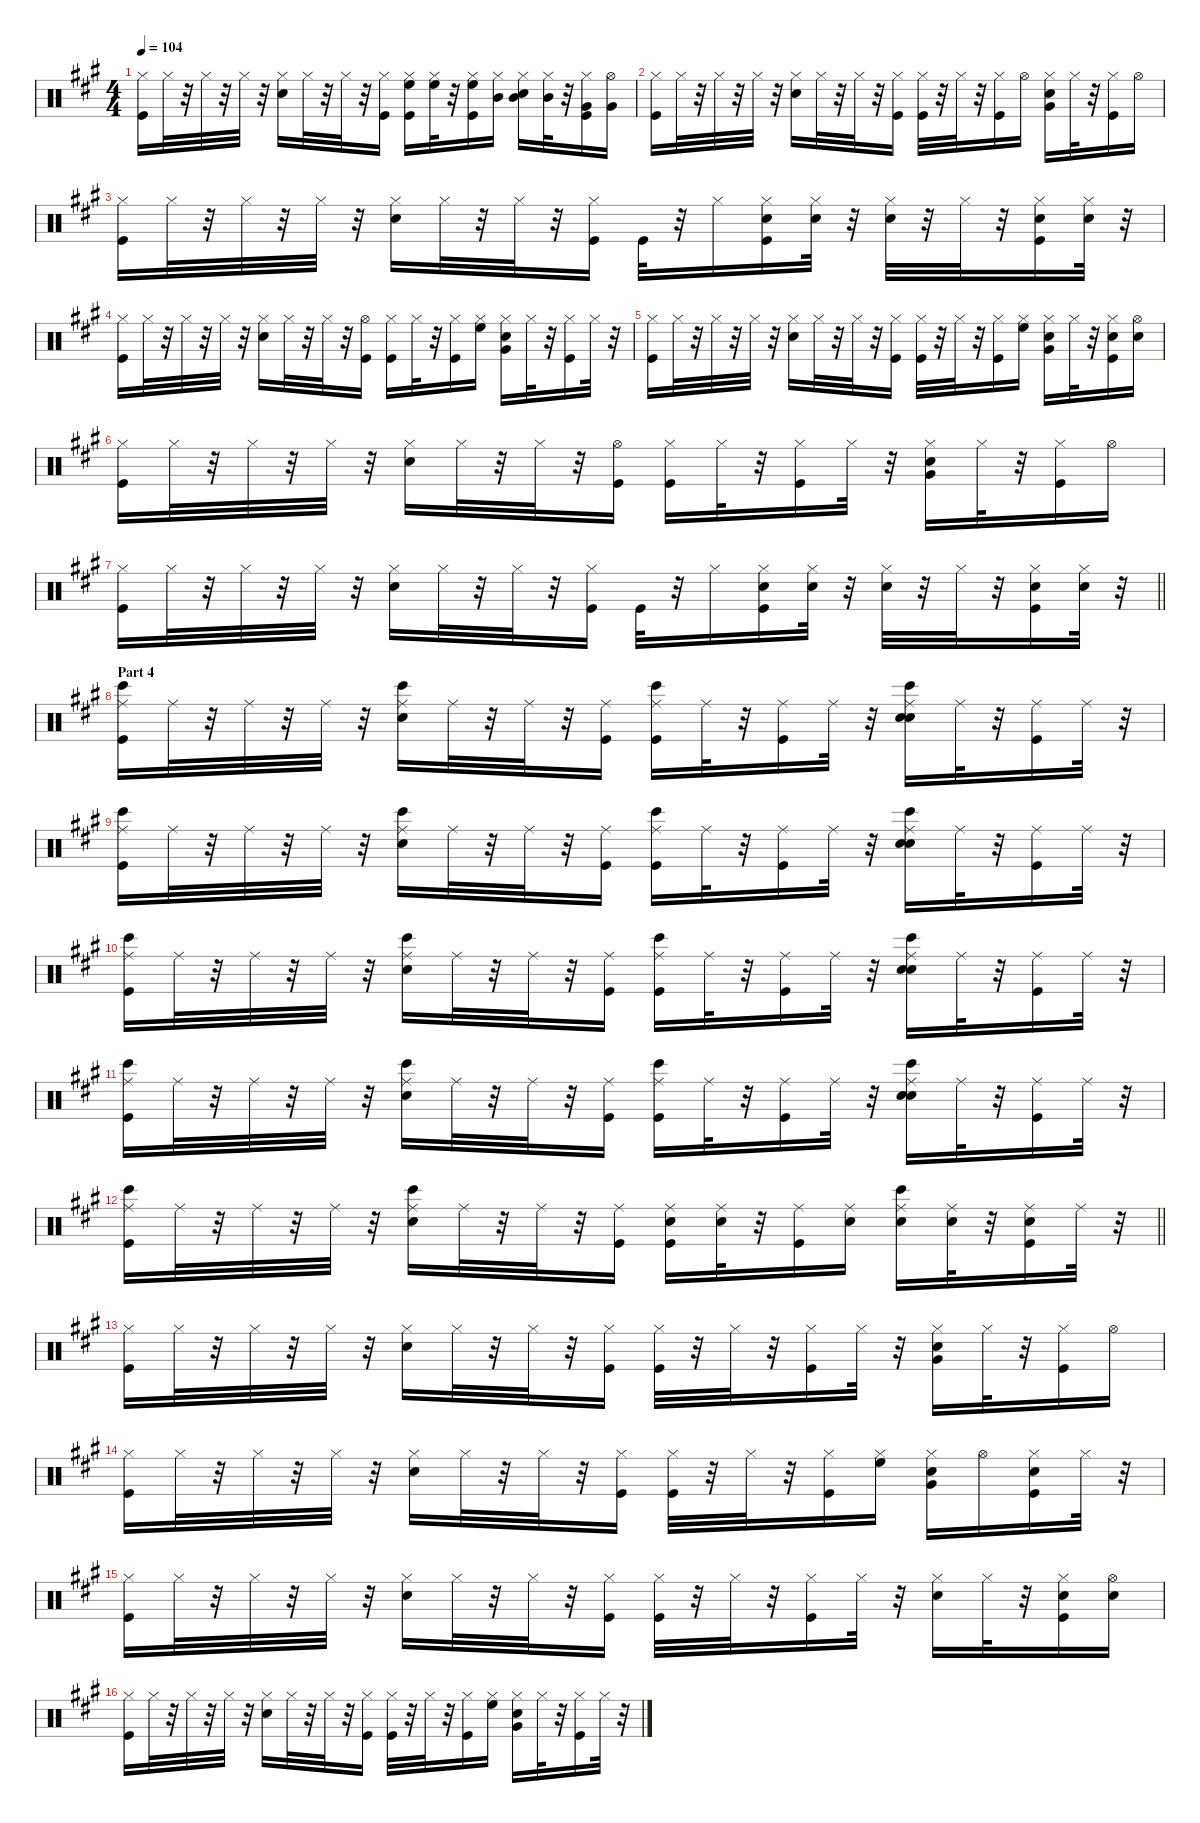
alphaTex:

\defaultSystemsLayout 4
\hideDynamics
\bracketExtendMode nobrackets
\singleTrackTrackNamePolicy hidden
\multiTrackTrackNamePolicy hidden
\otherSystemsTrackNameOrientation horizontal
\track ("Drums   " "drm.") {instrument percussion}
\staff {score}
\articulation defaults
\ts (4 4)
\tempo 104
\clef neutral
\ks a
("Kick (hit)"{acc forcenatural} "Hi-Hat (closed)"{acc forcenatural}).16{dy f beam Down} "Hi-Hat (closed)"{acc forcenatural}.32{dy mp beam Down} r.32{beam Down} "Hi-Hat (closed)"{acc forcenatural}.32{dy f beam Down} r.32{beam Down} "Hi-Hat (closed)"{acc forcenatural}.32{beam Down} r.32{beam Down} ("Snare (hit) 2"{acc forcenatural} "Hi-Hat (closed)"{acc forcenatural}).16{dy fff beam Down} "Hi-Hat (closed)"{acc forcenatural}.32{dy mp beam Down} r.32{beam Down} "Hi-Hat (closed)"{acc forcenatural}.32{dy f beam Down} r.32{beam Down} ("Kick (hit)"{acc forcenatural} "Hi-Hat (closed)"{acc forcenatural}).16{dy mf beam Down} ("Kick (hit)"{acc forcenatural} "Hi-Hat (closed)"{acc forcenatural} "High Floor Tom (hit)"{acc forcenatural}).16{dy f beam Down} ("Hi-Hat (closed)"{acc forcenatural} "High Floor Tom (hit)"{acc forcenatural}).32{dy mp beam Down} r.32{beam Down} ("Kick (hit)"{acc forcenatural} "Hi-Hat (closed)"{acc forcenatural} "High Floor Tom (hit)"{acc forcenatural}).16{dy f beam Down} ("Hi-Hat (closed)"{acc forcenatural} "Mid Tom (hit)"{acc forcenatural}).16{beam Down} ("Snare (hit) 2"{acc forcenatural} "Hi-Hat (closed)"{acc forcenatural} "Mid Tom (hit)"{acc forcenatural}).16{dy fff beam Down} ("Hi-Hat (closed)"{acc forcenatural} "Mid Tom (hit)"{acc forcenatural}).32{dy mp beam Down} r.32{beam Down} ("Kick (hit)"{acc forcenatural} "Hi-Hat (closed)"{acc forcenatural} "Very Low Tom (hit)"{acc forcenatural}).16{dy f beam Down} ("Very Low Tom (hit)"{acc forcenatural} "Hi-Hat (open)"{acc forcenatural}).16{beam Down} |
("Kick (hit)"{acc forcenatural} "Hi-Hat (closed)"{acc forcenatural}).16{beam Down} "Hi-Hat (closed)"{acc forcenatural}.32{dy mp beam Down} r.32{beam Down} "Hi-Hat (closed)"{acc forcenatural}.32{dy f beam Down} r.32{beam Down} "Hi-Hat (closed)"{acc forcenatural}.32{beam Down} r.32{beam Down} ("Snare (hit) 2"{acc forcenatural} "Hi-Hat (closed)"{acc forcenatural}).16{dy fff beam Down} "Hi-Hat (closed)"{acc forcenatural}.32{dy mp beam Down} r.32{beam Down} "Hi-Hat (closed)"{acc forcenatural}.32{dy f beam Down} r.32{beam Down} ("Kick (hit)"{acc forcenatural} "Hi-Hat (closed)"{acc forcenatural}).16{dy mf beam Down} ("Kick (hit)"{acc forcenatural} "Hi-Hat (closed)"{acc forcenatural}).32{dy f beam Down} r.32{beam Down} "Hi-Hat (closed)"{acc forcenatural}.32{dy mp beam Down} r.32{beam Down} ("Kick (hit)"{acc forcenatural} "Hi-Hat (closed)"{acc forcenatural}).16{dy f beam Down} "Hi-Hat (open)"{acc forcenatural}.16{beam Down} ("Snare (hit) 2"{acc forcenatural} "Hi-Hat (closed)"{acc forcenatural} "Very Low Tom (hit)"{acc forcenatural}).16{dy fff beam Down} "Hi-Hat (closed)"{acc forcenatural}.32{dy mp beam Down} r.32{beam Down} ("Kick (hit)"{acc forcenatural} "Hi-Hat (closed)"{acc forcenatural}).16{dy f beam Down} "Hi-Hat (open)"{acc forcenatural}.16{beam Down} |
("Kick (hit)"{acc forcenatural} "Hi-Hat (closed)"{acc forcenatural}).16{beam Down} "Hi-Hat (closed)"{acc forcenatural}.32{dy mp beam Down} r.32{beam Down} "Hi-Hat (closed)"{acc forcenatural}.32{dy f beam Down} r.32{beam Down} "Hi-Hat (closed)"{acc forcenatural}.32{beam Down} r.32{beam Down} ("Snare (hit) 2"{acc forcenatural} "Hi-Hat (closed)"{acc forcenatural}).16{dy fff beam Down} "Hi-Hat (closed)"{acc forcenatural}.32{dy mp beam Down} r.32{beam Down} "Hi-Hat (closed)"{acc forcenatural}.32{dy f beam Down} r.32{beam Down} ("Kick (hit)"{acc forcenatural} "Hi-Hat (closed)"{acc forcenatural}).16{dy mf beam Down} "Kick (hit)"{acc forcenatural}.32{dy f beam Down} r.32{beam Down} "Hi-Hat (closed)"{acc forcenatural}.16{dy mp beam Down} ("Kick (hit)"{acc forcenatural} "Snare (hit) 2"{acc forcenatural} "Hi-Hat (closed)"{acc forcenatural}).16{dy f beam Down} ("Snare (hit) 2"{acc forcenatural} "Hi-Hat (closed)"{acc forcenatural}).32{beam Down} r.32{beam Down} ("Snare (hit) 2"{acc forcenatural} "Hi-Hat (closed)"{acc forcenatural}).32{dy fff beam Down} r.32{beam Down} "Hi-Hat (closed)"{acc forcenatural}.32{dy mp beam Down} r.32{beam Down} ("Kick (hit)"{acc forcenatural} "Snare (hit) 2"{acc forcenatural} "Hi-Hat (closed)"{acc forcenatural}).16{dy f beam Down} ("Snare (hit) 2"{acc forcenatural} "Hi-Hat (closed)"{acc forcenatural}).32{dy ff beam Down} r.32{beam Down} |
("Kick (hit)"{acc forcenatural} "Hi-Hat (closed)"{acc forcenatural}).16{dy f beam Down} "Hi-Hat (closed)"{acc forcenatural}.32{dy mp beam Down} r.32{beam Down} "Hi-Hat (closed)"{acc forcenatural}.32{dy f beam Down} r.32{beam Down} "Hi-Hat (closed)"{acc forcenatural}.32{beam Down} r.32{beam Down} ("Snare (hit) 2"{acc forcenatural} "Hi-Hat (closed)"{acc forcenatural}).16{dy fff beam Down} "Hi-Hat (closed)"{acc forcenatural}.32{dy mp beam Down} r.32{beam Down} "Hi-Hat (closed)"{acc forcenatural}.32{dy f beam Down} r.32{beam Down} ("Kick (hit)"{acc forcenatural} "Hi-Hat (open)"{acc forcenatural}).16{dy mf beam Down} ("Kick (hit)"{acc forcenatural} "Hi-Hat (closed)"{acc forcenatural}).16{dy f beam Down} "Hi-Hat (closed)"{acc forcenatural}.32{dy mp beam Down} r.32{beam Down} ("Kick (hit)"{acc forcenatural} "Hi-Hat (closed)"{acc forcenatural}).16{dy f beam Down} ("Hi-Hat (closed)"{acc forcenatural} "High Floor Tom (hit)"{acc forcenatural}).16{beam Down} ("Snare (hit) 2"{acc forcenatural} "Hi-Hat (closed)"{acc forcenatural} "Very Low Tom (hit)"{acc forcenatural}).16{dy fff beam Down} "Hi-Hat (closed)"{acc forcenatural}.32{dy mp beam Down} r.32{beam Down} ("Kick (hit)"{acc forcenatural} "Hi-Hat (closed)"{acc forcenatural}).16{dy f beam Down} "Hi-Hat (closed)"{acc forcenatural}.32{beam Down} r.32{beam Down} |
("Kick (hit)"{acc forcenatural} "Hi-Hat (closed)"{acc forcenatural}).16{beam Down} "Hi-Hat (closed)"{acc forcenatural}.32{dy mp beam Down} r.32{beam Down} "Hi-Hat (closed)"{acc forcenatural}.32{dy f beam Down} r.32{beam Down} "Hi-Hat (closed)"{acc forcenatural}.32{beam Down} r.32{beam Down} ("Snare (hit) 2"{acc forcenatural} "Hi-Hat (closed)"{acc forcenatural}).16{dy fff beam Down} "Hi-Hat (closed)"{acc forcenatural}.32{dy mp beam Down} r.32{beam Down} "Hi-Hat (closed)"{acc forcenatural}.32{dy f beam Down} r.32{beam Down} ("Kick (hit)"{acc forcenatural} "Hi-Hat (closed)"{acc forcenatural}).16{dy mf beam Down} ("Kick (hit)"{acc forcenatural} "Hi-Hat (closed)"{acc forcenatural}).32{dy f beam Down} r.32{beam Down} "Hi-Hat (closed)"{acc forcenatural}.32{dy mp beam Down} r.32{beam Down} ("Kick (hit)"{acc forcenatural} "Hi-Hat (closed)"{acc forcenatural}).16{dy f beam Down} ("Hi-Hat (closed)"{acc forcenatural} "High Floor Tom (hit)"{acc forcenatural}).16{beam Down} ("Snare (hit) 2"{acc forcenatural} "Hi-Hat (closed)"{acc forcenatural} "Very Low Tom (hit)"{acc forcenatural}).16{dy fff beam Down} "Hi-Hat (closed)"{acc forcenatural}.32{dy mp beam Down} r.32{beam Down} ("Kick (hit)"{acc forcenatural} "Snare (hit) 2"{acc forcenatural} "Hi-Hat (closed)"{acc forcenatural}).16{dy f beam Down} ("Snare (hit) 2"{acc forcenatural} "Hi-Hat (open)"{acc forcenatural}).16{beam Down} |
("Kick (hit)"{acc forcenatural} "Hi-Hat (closed)"{acc forcenatural}).16{beam Down} "Hi-Hat (closed)"{acc forcenatural}.32{dy mp beam Down} r.32{beam Down} "Hi-Hat (closed)"{acc forcenatural}.32{dy f beam Down} r.32{beam Down} "Hi-Hat (closed)"{acc forcenatural}.32{beam Down} r.32{beam Down} ("Snare (hit) 2"{acc forcenatural} "Hi-Hat (closed)"{acc forcenatural}).16{dy fff beam Down} "Hi-Hat (closed)"{acc forcenatural}.32{dy mp beam Down} r.32{beam Down} "Hi-Hat (closed)"{acc forcenatural}.32{dy f beam Down} r.32{beam Down} ("Kick (hit)"{acc forcenatural} "Hi-Hat (open)"{acc forcenatural}).16{dy mf beam Down} ("Kick (hit)"{acc forcenatural} "Hi-Hat (closed)"{acc forcenatural}).16{dy f beam Down} "Hi-Hat (closed)"{acc forcenatural}.32{dy mp beam Down} r.32{beam Down} ("Kick (hit)"{acc forcenatural} "Hi-Hat (closed)"{acc forcenatural}).16{dy f beam Down} "Hi-Hat (closed)"{acc forcenatural}.32{beam Down} r.32{beam Down} ("Snare (hit) 2"{acc forcenatural} "Hi-Hat (closed)"{acc forcenatural} "Very Low Tom (hit)"{acc forcenatural}).16{dy fff beam Down} "Hi-Hat (closed)"{acc forcenatural}.32{dy mp beam Down} r.32{beam Down} ("Kick (hit)"{acc forcenatural} "Hi-Hat (closed)"{acc forcenatural}).16{dy f beam Down} "Hi-Hat (open)"{acc forcenatural}.16{beam Down} |
\barLineRight lightlight
("Kick (hit)"{acc forcenatural} "Hi-Hat (closed)"{acc forcenatural}).16{beam Down} "Hi-Hat (closed)"{acc forcenatural}.32{dy mp beam Down} r.32{beam Down} "Hi-Hat (closed)"{acc forcenatural}.32{dy f beam Down} r.32{beam Down} "Hi-Hat (closed)"{acc forcenatural}.32{beam Down} r.32{beam Down} ("Snare (hit) 2"{acc forcenatural} "Hi-Hat (closed)"{acc forcenatural}).16{dy fff beam Down} "Hi-Hat (closed)"{acc forcenatural}.32{dy mp beam Down} r.32{beam Down} "Hi-Hat (closed)"{acc forcenatural}.32{dy f beam Down} r.32{beam Down} ("Kick (hit)"{acc forcenatural} "Hi-Hat (closed)"{acc forcenatural}).16{dy mf beam Down} "Kick (hit)"{acc forcenatural}.32{dy f beam Down} r.32{beam Down} "Hi-Hat (closed)"{acc forcenatural}.16{dy mp beam Down} ("Kick (hit)"{acc forcenatural} "Snare (hit) 2"{acc forcenatural} "Hi-Hat (closed)"{acc forcenatural}).16{dy f beam Down} ("Snare (hit) 2"{acc forcenatural} "Hi-Hat (closed)"{acc forcenatural}).32{beam Down} r.32{beam Down} ("Snare (hit) 2"{acc forcenatural} "Hi-Hat (closed)"{acc forcenatural}).32{dy fff beam Down} r.32{beam Down} "Hi-Hat (closed)"{acc forcenatural}.32{dy mp beam Down} r.32{beam Down} ("Kick (hit)"{acc forcenatural} "Snare (hit) 2"{acc forcenatural} "Hi-Hat (closed)"{acc forcenatural}).16{dy f beam Down} ("Snare (hit) 2"{acc forcenatural} "Hi-Hat (closed)"{acc forcenatural}).32{dy ff beam Down} r.32{beam Down} |
\section ("" "Part 4")
("Kick (hit)"{acc forcenatural} "Ride (middle)"{acc forcenatural} "Bongo High (hit)"{acc forcenatural}).16{dy f beam Down} "Ride (middle)"{acc forcenatural}.32{dy mp beam Down} r.32{beam Down} "Ride (middle)"{acc forcenatural}.32{beam Down} r.32{beam Down} "Ride (middle)"{acc forcenatural}.32{beam Down} r.32{beam Down} ("Snare (hit) 2"{acc forcenatural} "Ride (middle)"{acc forcenatural} "Bongo High (hit)"{acc forcenatural}).16{dy fff beam Down} "Ride (middle)"{acc forcenatural}.32{dy mp beam Down} r.32{beam Down} "Ride (middle)"{acc forcenatural}.32{beam Down} r.32{beam Down} ("Kick (hit)"{acc forcenatural} "Ride (middle)"{acc forcenatural}).16{dy mf beam Down} ("Kick (hit)"{acc forcenatural} "Ride (middle)"{acc forcenatural} "Bongo High (hit)"{acc forcenatural}).16{dy f beam Down} "Ride (middle)"{acc forcenatural}.32{dy mp beam Down} r.32{beam Down} ("Kick (hit)"{acc forcenatural} "Ride (middle)"{acc forcenatural}).16{dy f beam Down} "Ride (middle)"{acc forcenatural}.32{dy mp beam Down} r.32{beam Down} ("Hand Clap (hit)"{acc forcenatural} "Snare (hit) 2"{acc forcenatural} "Ride (middle)"{acc forcenatural} "Bongo High (hit)"{acc forcenatural}).16{dy f beam Down} "Ride (middle)"{acc forcenatural}.32{dy mp beam Down} r.32{beam Down} ("Kick (hit)"{acc forcenatural} "Ride (middle)"{acc forcenatural}).16{dy f beam Down} "Ride (middle)"{acc forcenatural}.32{dy mp beam Down} r.32{beam Down} |
("Kick (hit)"{acc forcenatural} "Ride (middle)"{acc forcenatural} "Bongo High (hit)"{acc forcenatural}).16{dy f beam Down} "Ride (middle)"{acc forcenatural}.32{dy mp beam Down} r.32{beam Down} "Ride (middle)"{acc forcenatural}.32{beam Down} r.32{beam Down} "Ride (middle)"{acc forcenatural}.32{beam Down} r.32{beam Down} ("Snare (hit) 2"{acc forcenatural} "Ride (middle)"{acc forcenatural} "Bongo High (hit)"{acc forcenatural}).16{dy fff beam Down} "Ride (middle)"{acc forcenatural}.32{dy mp beam Down} r.32{beam Down} "Ride (middle)"{acc forcenatural}.32{beam Down} r.32{beam Down} ("Kick (hit)"{acc forcenatural} "Ride (middle)"{acc forcenatural}).16{dy mf beam Down} ("Kick (hit)"{acc forcenatural} "Ride (middle)"{acc forcenatural} "Bongo High (hit)"{acc forcenatural}).16{dy f beam Down} "Ride (middle)"{acc forcenatural}.32{dy mp beam Down} r.32{beam Down} ("Kick (hit)"{acc forcenatural} "Ride (middle)"{acc forcenatural}).16{dy f beam Down} "Ride (middle)"{acc forcenatural}.32{dy mp beam Down} r.32{beam Down} ("Hand Clap (hit)"{acc forcenatural} "Snare (hit) 2"{acc forcenatural} "Ride (middle)"{acc forcenatural} "Bongo High (hit)"{acc forcenatural}).16{dy f beam Down} "Ride (middle)"{acc forcenatural}.32{dy mp beam Down} r.32{beam Down} ("Kick (hit)"{acc forcenatural} "Ride (middle)"{acc forcenatural}).16{dy f beam Down} "Ride (middle)"{acc forcenatural}.32{dy mp beam Down} r.32{beam Down} |
("Kick (hit)"{acc forcenatural} "Ride (middle)"{acc forcenatural} "Bongo High (hit)"{acc forcenatural}).16{dy f beam Down} "Ride (middle)"{acc forcenatural}.32{dy mp beam Down} r.32{beam Down} "Ride (middle)"{acc forcenatural}.32{beam Down} r.32{beam Down} "Ride (middle)"{acc forcenatural}.32{beam Down} r.32{beam Down} ("Snare (hit) 2"{acc forcenatural} "Ride (middle)"{acc forcenatural} "Bongo High (hit)"{acc forcenatural}).16{dy fff beam Down} "Ride (middle)"{acc forcenatural}.32{dy mp beam Down} r.32{beam Down} "Ride (middle)"{acc forcenatural}.32{beam Down} r.32{beam Down} ("Kick (hit)"{acc forcenatural} "Ride (middle)"{acc forcenatural}).16{dy mf beam Down} ("Kick (hit)"{acc forcenatural} "Ride (middle)"{acc forcenatural} "Bongo High (hit)"{acc forcenatural}).16{dy f beam Down} "Ride (middle)"{acc forcenatural}.32{dy mp beam Down} r.32{beam Down} ("Kick (hit)"{acc forcenatural} "Ride (middle)"{acc forcenatural}).16{dy f beam Down} "Ride (middle)"{acc forcenatural}.32{dy mp beam Down} r.32{beam Down} ("Hand Clap (hit)"{acc forcenatural} "Snare (hit) 2"{acc forcenatural} "Ride (middle)"{acc forcenatural} "Bongo High (hit)"{acc forcenatural}).16{dy f beam Down} "Ride (middle)"{acc forcenatural}.32{dy mp beam Down} r.32{beam Down} ("Kick (hit)"{acc forcenatural} "Ride (middle)"{acc forcenatural}).16{dy f beam Down} "Ride (middle)"{acc forcenatural}.32{dy mp beam Down} r.32{beam Down} |
("Kick (hit)"{acc forcenatural} "Ride (middle)"{acc forcenatural} "Bongo High (hit)"{acc forcenatural}).16{dy f beam Down} "Ride (middle)"{acc forcenatural}.32{dy mp beam Down} r.32{beam Down} "Ride (middle)"{acc forcenatural}.32{beam Down} r.32{beam Down} "Ride (middle)"{acc forcenatural}.32{beam Down} r.32{beam Down} ("Snare (hit) 2"{acc forcenatural} "Ride (middle)"{acc forcenatural} "Bongo High (hit)"{acc forcenatural}).16{dy fff beam Down} "Ride (middle)"{acc forcenatural}.32{dy mp beam Down} r.32{beam Down} "Ride (middle)"{acc forcenatural}.32{beam Down} r.32{beam Down} ("Kick (hit)"{acc forcenatural} "Ride (middle)"{acc forcenatural}).16{dy mf beam Down} ("Kick (hit)"{acc forcenatural} "Ride (middle)"{acc forcenatural} "Bongo High (hit)"{acc forcenatural}).16{dy f beam Down} "Ride (middle)"{acc forcenatural}.32{dy mp beam Down} r.32{beam Down} ("Kick (hit)"{acc forcenatural} "Ride (middle)"{acc forcenatural}).16{dy f beam Down} "Ride (middle)"{acc forcenatural}.32{dy mp beam Down} r.32{beam Down} ("Hand Clap (hit)"{acc forcenatural} "Snare (hit) 2"{acc forcenatural} "Ride (middle)"{acc forcenatural} "Bongo High (hit)"{acc forcenatural}).16{dy f beam Down} "Ride (middle)"{acc forcenatural}.32{dy mp beam Down} r.32{beam Down} ("Kick (hit)"{acc forcenatural} "Ride (middle)"{acc forcenatural}).16{dy f beam Down} "Ride (middle)"{acc forcenatural}.32{dy mp beam Down} r.32{beam Down} |
\barLineRight lightlight
("Kick (hit)"{acc forcenatural} "Ride (middle)"{acc forcenatural} "Bongo High (hit)"{acc forcenatural}).16{dy f beam Down} "Ride (middle)"{acc forcenatural}.32{dy mp beam Down} r.32{beam Down} "Ride (middle)"{acc forcenatural}.32{beam Down} r.32{beam Down} "Ride (middle)"{acc forcenatural}.32{beam Down} r.32{beam Down} ("Snare (hit) 2"{acc forcenatural} "Ride (middle)"{acc forcenatural} "Bongo High (hit)"{acc forcenatural}).16{dy fff beam Down} "Ride (middle)"{acc forcenatural}.32{dy mp beam Down} r.32{beam Down} "Ride (middle)"{acc forcenatural}.32{beam Down} r.32{beam Down} ("Kick (hit)"{acc forcenatural} "Ride (middle)"{acc forcenatural}).16{dy mf beam Down} ("Kick (hit)"{acc forcenatural} "Snare (hit) 2"{acc forcenatural} "Ride (middle)"{acc forcenatural}).16{dy f beam Down} ("Snare (hit) 2"{acc forcenatural} "Ride (middle)"{acc forcenatural}).32{beam Down} r.32{beam Down} ("Kick (hit)"{acc forcenatural} "Ride (middle)"{acc forcenatural}).16{beam Down} ("Snare (hit) 2"{acc forcenatural} "Ride (middle)"{acc forcenatural}).16{beam Down} ("Snare (hit) 2"{acc forcenatural} "Ride (middle)"{acc forcenatural} "Bongo High (hit)"{acc forcenatural}).16{dy fff beam Down} ("Snare (hit) 2"{acc forcenatural} "Ride (middle)"{acc forcenatural}).32{dy f beam Down} r.32{beam Down} ("Kick (hit)"{acc forcenatural} "Snare (hit) 2"{acc forcenatural} "Ride (middle)"{acc forcenatural}).16{beam Down} "Ride (middle)"{acc forcenatural}.32{dy mp beam Down} r.32{beam Down} |
("Kick (hit)"{acc forcenatural} "Hi-Hat (closed)"{acc forcenatural}).16{dy f beam Down} "Hi-Hat (closed)"{acc forcenatural}.32{dy mp beam Down} r.32{beam Down} "Hi-Hat (closed)"{acc forcenatural}.32{dy f beam Down} r.32{beam Down} "Hi-Hat (closed)"{acc forcenatural}.32{beam Down} r.32{beam Down} ("Snare (hit) 2"{acc forcenatural} "Hi-Hat (closed)"{acc forcenatural}).16{dy fff beam Down} "Hi-Hat (closed)"{acc forcenatural}.32{dy mp beam Down} r.32{beam Down} "Hi-Hat (closed)"{acc forcenatural}.32{dy f beam Down} r.32{beam Down} ("Kick (hit)"{acc forcenatural} "Hi-Hat (closed)"{acc forcenatural}).16{dy mf beam Down} ("Kick (hit)"{acc forcenatural} "Hi-Hat (closed)"{acc forcenatural}).32{dy f beam Down} r.32{beam Down} "Hi-Hat (closed)"{acc forcenatural}.32{dy mp beam Down} r.32{beam Down} ("Kick (hit)"{acc forcenatural} "Hi-Hat (closed)"{acc forcenatural}).16{dy f beam Down} "Hi-Hat (closed)"{acc forcenatural}.32{beam Down} r.32{beam Down} ("Snare (hit) 2"{acc forcenatural} "Hi-Hat (closed)"{acc forcenatural} "Very Low Tom (hit)"{acc forcenatural}).16{dy fff beam Down} "Hi-Hat (closed)"{acc forcenatural}.32{dy mp beam Down} r.32{beam Down} ("Kick (hit)"{acc forcenatural} "Hi-Hat (closed)"{acc forcenatural}).16{dy f beam Down} "Hi-Hat (open)"{acc forcenatural}.16{beam Down} |
("Kick (hit)"{acc forcenatural} "Hi-Hat (closed)"{acc forcenatural}).16{beam Down} "Hi-Hat (closed)"{acc forcenatural}.32{dy mp beam Down} r.32{beam Down} "Hi-Hat (closed)"{acc forcenatural}.32{dy f beam Down} r.32{beam Down} "Hi-Hat (closed)"{acc forcenatural}.32{beam Down} r.32{beam Down} ("Snare (hit) 2"{acc forcenatural} "Hi-Hat (closed)"{acc forcenatural}).16{dy fff beam Down} "Hi-Hat (closed)"{acc forcenatural}.32{dy mp beam Down} r.32{beam Down} "Hi-Hat (closed)"{acc forcenatural}.32{dy f beam Down} r.32{beam Down} ("Kick (hit)"{acc forcenatural} "Hi-Hat (closed)"{acc forcenatural}).16{dy mf beam Down} ("Kick (hit)"{acc forcenatural} "Hi-Hat (closed)"{acc forcenatural}).32{dy f beam Down} r.32{beam Down} "Hi-Hat (closed)"{acc forcenatural}.32{dy mp beam Down} r.32{beam Down} ("Kick (hit)"{acc forcenatural} "Hi-Hat (closed)"{acc forcenatural}).16{dy f beam Down} ("Hi-Hat (closed)"{acc forcenatural} "High Floor Tom (hit)"{acc forcenatural}).16{beam Down} ("Snare (hit) 2"{acc forcenatural} "Hi-Hat (closed)"{acc forcenatural} "Very Low Tom (hit)"{acc forcenatural}).16{dy fff beam Down} "Hi-Hat (open)"{acc forcenatural}.16{dy mp beam Down} ("Kick (hit)"{acc forcenatural} "Snare (hit) 2"{acc forcenatural} "Hi-Hat (closed)"{acc forcenatural}).16{dy f beam Down} "Hi-Hat (closed)"{acc forcenatural}.32{beam Down} r.32{beam Down} |
("Kick (hit)"{acc forcenatural} "Hi-Hat (closed)"{acc forcenatural}).16{beam Down} "Hi-Hat (closed)"{acc forcenatural}.32{dy mp beam Down} r.32{beam Down} "Hi-Hat (closed)"{acc forcenatural}.32{dy f beam Down} r.32{beam Down} "Hi-Hat (closed)"{acc forcenatural}.32{beam Down} r.32{beam Down} ("Snare (hit) 2"{acc forcenatural} "Hi-Hat (closed)"{acc forcenatural}).16{dy fff beam Down} "Hi-Hat (closed)"{acc forcenatural}.32{dy mp beam Down} r.32{beam Down} "Hi-Hat (closed)"{acc forcenatural}.32{dy f beam Down} r.32{beam Down} ("Kick (hit)"{acc forcenatural} "Hi-Hat (closed)"{acc forcenatural}).16{dy mf beam Down} ("Kick (hit)"{acc forcenatural} "Hi-Hat (closed)"{acc forcenatural}).32{dy f beam Down} r.32{beam Down} "Hi-Hat (closed)"{acc forcenatural}.32{dy mp beam Down} r.32{beam Down} ("Kick (hit)"{acc forcenatural} "Hi-Hat (closed)"{acc forcenatural}).16{dy f beam Down} "Hi-Hat (closed)"{acc forcenatural}.32{beam Down} r.32{beam Down} ("Snare (hit) 2"{acc forcenatural} "Hi-Hat (closed)"{acc forcenatural}).16{dy fff beam Down} "Hi-Hat (closed)"{acc forcenatural}.32{dy mp beam Down} r.32{beam Down} ("Kick (hit)"{acc forcenatural} "Snare (hit) 2"{acc forcenatural} "Hi-Hat (closed)"{acc forcenatural}).16{dy f beam Down} ("Snare (hit) 2"{acc forcenatural} "Hi-Hat (open)"{acc forcenatural}).16{beam Down} |
("Kick (hit)"{acc forcenatural} "Hi-Hat (closed)"{acc forcenatural}).16{beam Down} "Hi-Hat (closed)"{acc forcenatural}.32{dy mp beam Down} r.32{beam Down} "Hi-Hat (closed)"{acc forcenatural}.32{dy f beam Down} r.32{beam Down} "Hi-Hat (closed)"{acc forcenatural}.32{beam Down} r.32{beam Down} ("Snare (hit) 2"{acc forcenatural} "Hi-Hat (closed)"{acc forcenatural}).16{dy fff beam Down} "Hi-Hat (closed)"{acc forcenatural}.32{dy mp beam Down} r.32{beam Down} "Hi-Hat (closed)"{acc forcenatural}.32{dy f beam Down} r.32{beam Down} ("Kick (hit)"{acc forcenatural} "Hi-Hat (closed)"{acc forcenatural}).16{dy mf beam Down} ("Kick (hit)"{acc forcenatural} "Hi-Hat (closed)"{acc forcenatural}).32{dy f beam Down} r.32{beam Down} "Hi-Hat (closed)"{acc forcenatural}.32{dy mp beam Down} r.32{beam Down} ("Kick (hit)"{acc forcenatural} "Hi-Hat (closed)"{acc forcenatural}).16{dy f beam Down} ("Hi-Hat (closed)"{acc forcenatural} "High Floor Tom (hit)"{acc forcenatural}).16{beam Down} ("Snare (hit) 2"{acc forcenatural} "Hi-Hat (closed)"{acc forcenatural} "Very Low Tom (hit)"{acc forcenatural}).16{dy fff beam Down} "Hi-Hat (closed)"{acc forcenatural}.32{dy mp beam Down} r.32{beam Down} ("Kick (hit)"{acc forcenatural} "Hi-Hat (closed)"{acc forcenatural}).16{dy f beam Down} "Hi-Hat (closed)"{acc forcenatural}.32{beam Down} r.32{beam Down}
